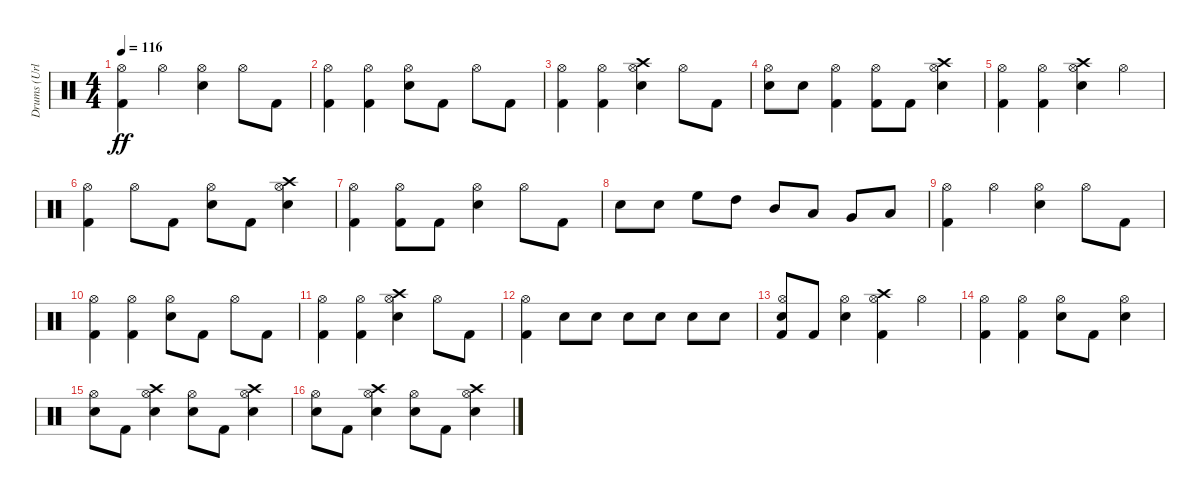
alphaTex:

\track ("Drums (Urlich)" "Drums (Url") {instrument percussion}
\staff {score}
\articulation defaults
\ts (4 4)
\tempo 116
\clef neutral
\ks c
("Kick (hit) 2" "Hi-Hat (open)").4{dy ff} "Hi-Hat (open)".4 ("Snare (hit) 2" "Hi-Hat (open)").4 "Hi-Hat (open)".8 "Kick (hit) 2".8 |
("Kick (hit) 2" "Hi-Hat (open)").4 ("Kick (hit) 2" "Hi-Hat (open)").4 ("Snare (hit) 2" "Hi-Hat (open)").8 "Kick (hit) 2".8 "Hi-Hat (open)".8 "Kick (hit) 2".8 |
("Kick (hit) 2" "Hi-Hat (open)").4 ("Kick (hit) 2" "Hi-Hat (open)").4 ("Snare (hit) 2" "Hi-Hat (open)" "Crash high (hit)").4 "Hi-Hat (open)".8 "Kick (hit) 2".8 |
("Snare (hit) 2" "Hi-Hat (open)").8 "Snare (hit) 2".8 ("Kick (hit) 2" "Hi-Hat (open)").4 ("Kick (hit) 2" "Hi-Hat (open)").8 "Kick (hit) 2".8 ("Snare (hit) 2" "Hi-Hat (open)" "Crash high (hit)").4 |
("Kick (hit) 2" "Hi-Hat (open)").4 ("Kick (hit) 2" "Hi-Hat (open)").4 ("Snare (hit) 2" "Hi-Hat (open)" "Crash high (hit)").4 "Hi-Hat (open)".4 |
("Kick (hit) 2" "Hi-Hat (open)").4 "Hi-Hat (open)".8 "Kick (hit) 2".8 ("Snare (hit) 2" "Hi-Hat (open)").8 "Kick (hit) 2".8 ("Snare (hit) 2" "Hi-Hat (open)" "Crash high (hit)").4 |
("Kick (hit) 2" "Hi-Hat (open)").4 ("Kick (hit) 2" "Hi-Hat (open)").8 "Kick (hit) 2".8 ("Snare (hit) 2" "Hi-Hat (open)").4 "Hi-Hat (open)".8 "Kick (hit) 2".8 |
"Snare (hit) 2".8 "Snare (hit) 2".8 "High Floor Tom (hit)".8 "High Tom (hit)".8 "Mid Tom (hit)".8 "Low Tom (hit)".8 "Very Low Tom (hit)".8 "Low Floor Tom (hit)".8 |
("Kick (hit) 2" "Hi-Hat (open)").4 "Hi-Hat (open)".4 ("Snare (hit) 2" "Hi-Hat (open)").4 "Hi-Hat (open)".8 "Kick (hit) 2".8 |
("Kick (hit) 2" "Hi-Hat (open)").4 ("Kick (hit) 2" "Hi-Hat (open)").4 ("Snare (hit) 2" "Hi-Hat (open)").8 "Kick (hit) 2".8 "Hi-Hat (open)".8 "Kick (hit) 2".8 |
("Kick (hit) 2" "Hi-Hat (open)").4 ("Kick (hit) 2" "Hi-Hat (open)").4 ("Snare (hit) 2" "Hi-Hat (open)" "Crash high (hit)").4 "Hi-Hat (open)".8 "Kick (hit) 2".8 |
("Kick (hit) 2" "Hi-Hat (open)").4 "Snare (hit) 2".8 "Snare (hit) 2".8 "Snare (hit) 2".8 "Snare (hit) 2".8 "Snare (hit) 2".8 "Snare (hit) 2".8 |
("Kick (hit) 2" "Snare (hit) 2" "Hi-Hat (open)").8 "Kick (hit) 2".8 ("Snare (hit) 2" "Hi-Hat (open)").4 ("Kick (hit) 2" "Hi-Hat (open)" "Crash high (hit)").4 "Hi-Hat (open)".4 |
("Kick (hit) 2" "Hi-Hat (open)").4 ("Kick (hit) 2" "Hi-Hat (open)").4 ("Snare (hit) 2" "Hi-Hat (open)").8 "Kick (hit) 2".8 ("Snare (hit) 2" "Hi-Hat (open)").4 |
("Snare (hit) 2" "Hi-Hat (open)").8 "Kick (hit) 2".8 ("Snare (hit) 2" "Hi-Hat (open)" "Crash high (hit)").4 ("Snare (hit) 2" "Hi-Hat (open)").8 "Kick (hit) 2".8 ("Snare (hit) 2" "Hi-Hat (open)" "Crash high (hit)").4 |
("Snare (hit) 2" "Hi-Hat (open)").8 "Kick (hit) 2".8 ("Snare (hit) 2" "Hi-Hat (open)" "Crash high (hit)").4 ("Snare (hit) 2" "Hi-Hat (open)").8 "Kick (hit) 2".8 ("Snare (hit) 2" "Hi-Hat (open)" "Crash high (hit)").4
